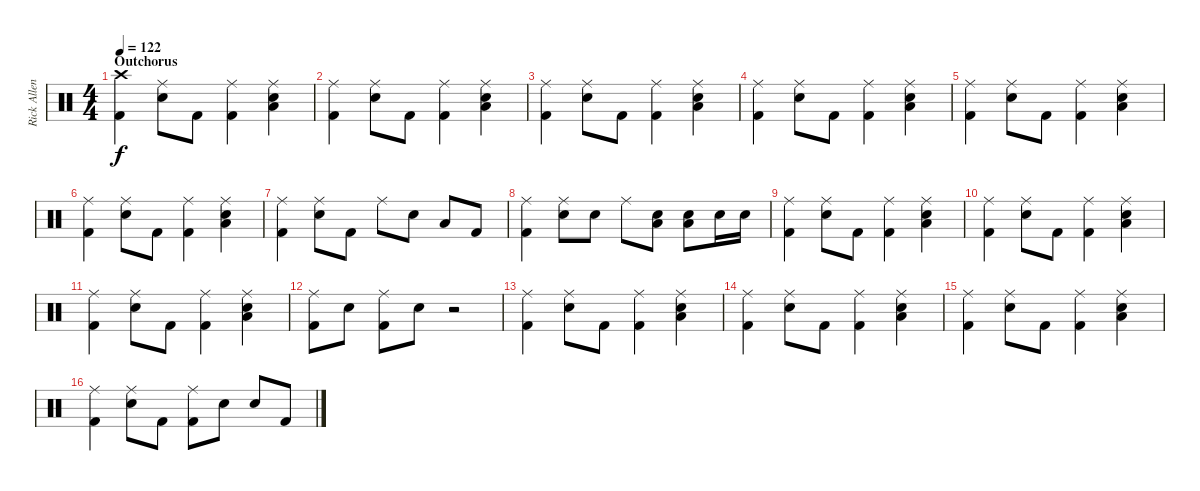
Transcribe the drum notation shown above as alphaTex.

\track ("Rick Allen" "Rick Allen") {instrument percussion}
\staff {score}
\articulation defaults
\ts (4 4)
\section ("" "Outchorus")
\tempo 122
\clef neutral
\ks c
("Crash high (hit)" "Kick (hit) 2").4{dy f} ("Ride (middle)" "Electric Snare (hit)").8 "Kick (hit) 2".8 ("Ride (middle)" "Kick (hit) 2").4 ("Ride (middle)" "Low Tom (hit)" "Electric Snare (hit)").4 |
("Ride (middle)" "Kick (hit) 2").4 ("Ride (middle)" "Electric Snare (hit)").8 "Kick (hit) 2".8 ("Ride (middle)" "Kick (hit) 2").4 ("Ride (middle)" "Low Tom (hit)" "Electric Snare (hit)").4 |
("Ride (middle)" "Kick (hit) 2").4 ("Ride (middle)" "Electric Snare (hit)").8 "Kick (hit) 2".8 ("Ride (middle)" "Kick (hit) 2").4 ("Ride (middle)" "Low Tom (hit)" "Electric Snare (hit)").4 |
("Ride (middle)" "Kick (hit) 2").4 ("Ride (middle)" "Electric Snare (hit)").8 "Kick (hit) 2".8 ("Ride (middle)" "Kick (hit) 2").4 ("Ride (middle)" "Low Tom (hit)" "Electric Snare (hit)").4 |
("Ride (middle)" "Kick (hit) 2").4 ("Ride (middle)" "Electric Snare (hit)").8 "Kick (hit) 2".8 ("Ride (middle)" "Kick (hit) 2").4 ("Ride (middle)" "Low Tom (hit)" "Electric Snare (hit)").4 |
("Ride (middle)" "Kick (hit) 2").4 ("Ride (middle)" "Electric Snare (hit)").8 "Kick (hit) 2".8 ("Ride (middle)" "Kick (hit) 2").4 ("Ride (middle)" "Low Tom (hit)" "Electric Snare (hit)").4 |
("Ride (middle)" "Kick (hit) 2").4 ("Ride (middle)" "Electric Snare (hit)").8 "Kick (hit) 2".8 "Ride (middle)".8 "Electric Snare (hit)".8 "Low Tom (hit)".8 "Kick (hit) 2".8 |
("Ride (middle)" "Kick (hit) 2").4 ("Ride (middle)" "Electric Snare (hit)").8 "Electric Snare (hit)".8 "Ride (middle)".8 ("Low Tom (hit)" "Electric Snare (hit)").8 ("Low Tom (hit)" "Electric Snare (hit)").8 "Electric Snare (hit)".16 "Electric Snare (hit)".16 |
("Ride (middle)" "Kick (hit) 2").4 ("Ride (middle)" "Electric Snare (hit)").8 "Kick (hit) 2".8 ("Ride (middle)" "Kick (hit) 2").4 ("Ride (middle)" "Low Tom (hit)" "Electric Snare (hit)").4 |
("Ride (middle)" "Kick (hit) 2").4 ("Ride (middle)" "Electric Snare (hit)").8 "Kick (hit) 2".8 ("Ride (middle)" "Kick (hit) 2").4 ("Ride (middle)" "Low Tom (hit)" "Electric Snare (hit)").4 |
("Ride (middle)" "Kick (hit) 2").4 ("Ride (middle)" "Electric Snare (hit)").8 "Kick (hit) 2".8 ("Ride (middle)" "Kick (hit) 2").4 ("Ride (middle)" "Low Tom (hit)" "Electric Snare (hit)").4 |
("Ride (middle)" "Kick (hit) 2").8 "Electric Snare (hit)".8 ("Ride (middle)" "Kick (hit) 2").8 "Electric Snare (hit)".8 r.2 |
("Ride (middle)" "Kick (hit) 2").4 ("Ride (middle)" "Electric Snare (hit)").8 "Kick (hit) 2".8 ("Ride (middle)" "Kick (hit) 2").4 ("Ride (middle)" "Low Tom (hit)" "Electric Snare (hit)").4 |
("Ride (middle)" "Kick (hit) 2").4 ("Ride (middle)" "Electric Snare (hit)").8 "Kick (hit) 2".8 ("Ride (middle)" "Kick (hit) 2").4 ("Ride (middle)" "Low Tom (hit)" "Electric Snare (hit)").4 |
("Ride (middle)" "Kick (hit) 2").4 ("Ride (middle)" "Electric Snare (hit)").8 "Kick (hit) 2".8 ("Ride (middle)" "Kick (hit) 2").4 ("Ride (middle)" "Low Tom (hit)" "Electric Snare (hit)").4 |
("Ride (middle)" "Kick (hit) 2").4 ("Ride (middle)" "Electric Snare (hit)").8 "Kick (hit) 2".8 ("Ride (middle)" "Kick (hit) 2").8 "Electric Snare (hit)".8 "Electric Snare (hit)".8 "Kick (hit) 2".8
